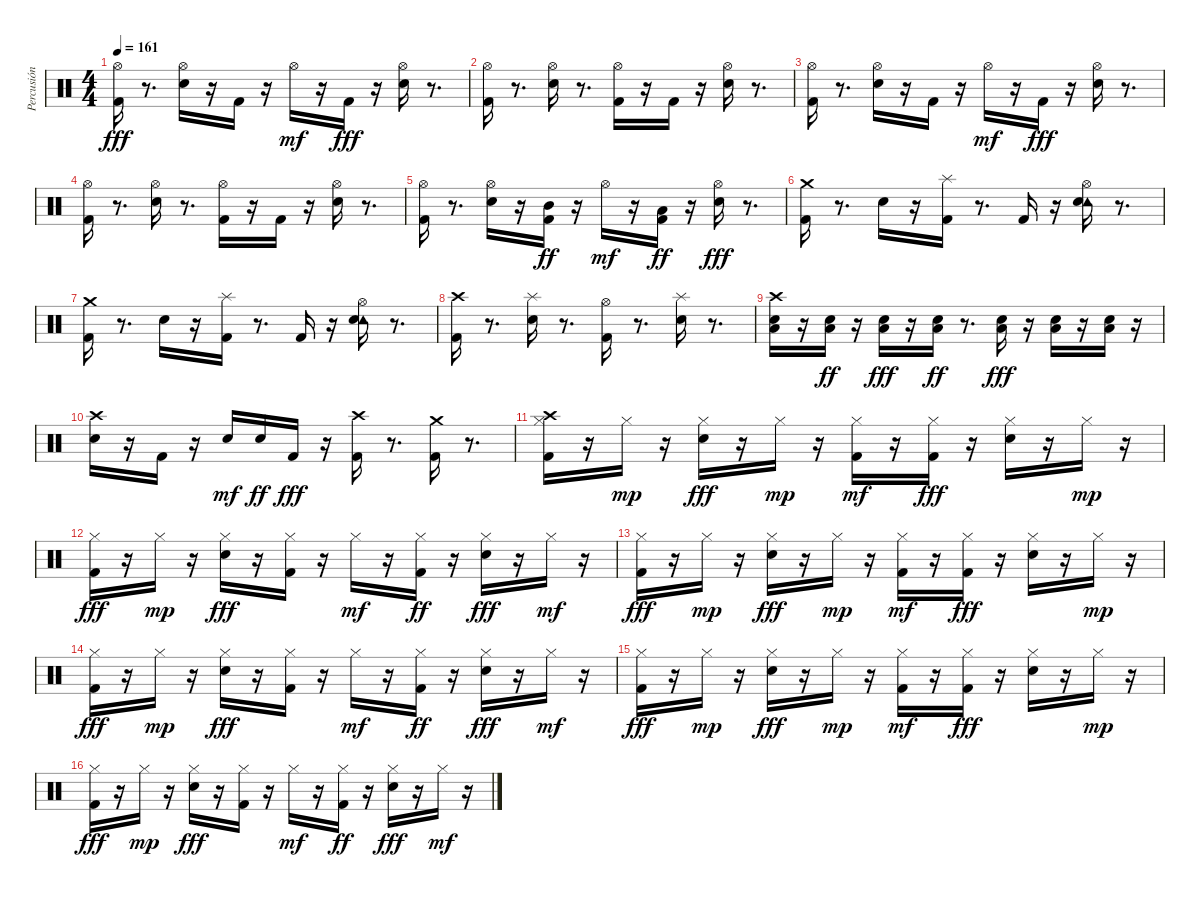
\track ("Percusión" "Percusión") {instrument percussion}
\staff {score}
\articulation defaults
\ts (4 4)
\tempo 161
\clef neutral
\ks c
("Hi-Hat (open)" "Kick (hit) 2").16{dy fff} r.8{d} ("Hi-Hat (open)" "Snare (hit) 2").16 r.16 "Kick (hit) 2".16 r.16 "Hi-Hat (open)".16{dy mf} r.16 "Kick (hit) 2".16{dy fff} r.16 ("Hi-Hat (open)" "Snare (hit) 2").16 r.8{d} |
("Hi-Hat (open)" "Kick (hit) 2").16 r.8{d} ("Hi-Hat (open)" "Snare (hit) 2").16 r.8{d} ("Hi-Hat (open)" "Kick (hit) 2").16 r.16 "Kick (hit) 2".16 r.16 ("Hi-Hat (open)" "Snare (hit) 2").16 r.8{d} |
("Hi-Hat (open)" "Kick (hit) 2").16 r.8{d} ("Hi-Hat (open)" "Snare (hit) 2").16 r.16 "Kick (hit) 2".16 r.16 "Hi-Hat (open)".16{dy mf} r.16 "Kick (hit) 2".16{dy fff} r.16 ("Hi-Hat (open)" "Snare (hit) 2").16 r.8{d} |
("Hi-Hat (open)" "Kick (hit) 2").16 r.8{d} ("Hi-Hat (open)" "Snare (hit) 2").16 r.8{d} ("Hi-Hat (open)" "Kick (hit) 2").16 r.16 "Kick (hit) 2".16 r.16 ("Hi-Hat (open)" "Snare (hit) 2").16 r.8{d} |
("Hi-Hat (open)" "Kick (hit) 2").16 r.8{d} ("Hi-Hat (open)" "Snare (hit) 2").16 r.16 ("Mid Tom (hit)" "Kick (hit) 2").16{dy ff} r.16 "Hi-Hat (open)".16{dy mf} r.16 ("Kick (hit) 2" "Low Tom (hit)").16{dy ff} r.16 ("Hi-Hat (open)" "Snare (hit) 2").16{dy fff} r.8{d} |
("Crash medium (hit)" "Kick (hit) 2").16 r.8{d} "Snare (hit) 2".16 r.16 ("Splash (hit)" "Kick (hit) 2").16 r.8{d} "Kick (hit) 2".16 r.16 ("Hi-Hat (open)" "Tambourine (hit)" "Snare (hit) 2").16 r.8{d} |
("Crash medium (hit)" "Kick (hit) 2").16 r.8{d} "Snare (hit) 2".16 r.16 ("Splash (hit)" "Kick (hit) 2").16 r.8{d} "Kick (hit) 2".16 r.16 ("Hi-Hat (open)" "Tambourine (hit)" "Snare (hit) 2").16 r.8{d} |
("Crash high (hit)" "Kick (hit) 2").16 r.8{d} ("Splash (hit)" "Snare (hit) 2").16 r.8{d} ("Hi-Hat (open)" "Kick (hit) 2").16 r.8{d} ("Splash (hit)" "Snare (hit) 2").16 r.8{d} |
("Crash high (hit)" "Low Floor Tom (hit)" "Snare (hit) 2").16 r.16 ("Low Floor Tom (hit)" "Snare (hit) 2").16{dy ff} r.16 ("Low Floor Tom (hit)" "Snare (hit) 2").16{dy fff} r.16 ("Low Floor Tom (hit)" "Snare (hit) 2").16{dy ff} r.8{d} ("Low Floor Tom (hit)" "Snare (hit) 2").16{dy fff} r.16 ("Low Floor Tom (hit)" "Snare (hit) 2").16 r.16 ("Low Floor Tom (hit)" "Snare (hit) 2").16 r.16 |
("Crash high (hit)" "Snare (hit) 2").16 r.16 "Kick (hit) 2".16 r.16 "Snare (hit) 2".16{dy mf} "Snare (hit) 2".16{dy ff} "Kick (hit) 2".16{dy fff} r.16 ("Crash high (hit)" "Kick (hit) 2").16 r.8{d} ("Crash medium (hit)" "Kick (hit) 2").16 r.8{d} |
("Hi-Hat (closed)" "Crash high (hit)" "Kick (hit) 2").16 r.16 "Hi-Hat (closed)".16{dy mp} r.16 ("Hi-Hat (closed)" "Snare (hit) 2").16{dy fff} r.16 "Hi-Hat (closed)".16{dy mp} r.16 ("Hi-Hat (closed)" "Kick (hit) 2").16{dy mf} r.16 ("Hi-Hat (closed)" "Kick (hit) 2").16{dy fff} r.16 ("Hi-Hat (closed)" "Snare (hit) 2").16 r.16 "Hi-Hat (closed)".16{dy mp} r.16 |
("Hi-Hat (closed)" "Kick (hit) 2").16{dy fff} r.16 "Hi-Hat (closed)".16{dy mp} r.16 ("Hi-Hat (closed)" "Snare (hit) 2").16{dy fff} r.16 ("Hi-Hat (closed)" "Kick (hit) 2").16 r.16 "Hi-Hat (closed)".16{dy mf} r.16 ("Hi-Hat (closed)" "Kick (hit) 2").16{dy ff} r.16 ("Hi-Hat (closed)" "Snare (hit) 2").16{dy fff} r.16 "Hi-Hat (closed)".16{dy mf} r.16 |
("Hi-Hat (closed)" "Kick (hit) 2").16{dy fff} r.16 "Hi-Hat (closed)".16{dy mp} r.16 ("Hi-Hat (closed)" "Snare (hit) 2").16{dy fff} r.16 "Hi-Hat (closed)".16{dy mp} r.16 ("Hi-Hat (closed)" "Kick (hit) 2").16{dy mf} r.16 ("Hi-Hat (closed)" "Kick (hit) 2").16{dy fff} r.16 ("Hi-Hat (closed)" "Snare (hit) 2").16 r.16 "Hi-Hat (closed)".16{dy mp} r.16 |
("Hi-Hat (closed)" "Kick (hit) 2").16{dy fff} r.16 "Hi-Hat (closed)".16{dy mp} r.16 ("Hi-Hat (closed)" "Snare (hit) 2").16{dy fff} r.16 ("Hi-Hat (closed)" "Kick (hit) 2").16 r.16 "Hi-Hat (closed)".16{dy mf} r.16 ("Hi-Hat (closed)" "Kick (hit) 2").16{dy ff} r.16 ("Hi-Hat (closed)" "Snare (hit) 2").16{dy fff} r.16 "Hi-Hat (closed)".16{dy mf} r.16 |
("Hi-Hat (closed)" "Kick (hit) 2").16{dy fff} r.16 "Hi-Hat (closed)".16{dy mp} r.16 ("Hi-Hat (closed)" "Snare (hit) 2").16{dy fff} r.16 "Hi-Hat (closed)".16{dy mp} r.16 ("Hi-Hat (closed)" "Kick (hit) 2").16{dy mf} r.16 ("Hi-Hat (closed)" "Kick (hit) 2").16{dy fff} r.16 ("Hi-Hat (closed)" "Snare (hit) 2").16 r.16 "Hi-Hat (closed)".16{dy mp} r.16 |
("Hi-Hat (closed)" "Kick (hit) 2").16{dy fff} r.16 "Hi-Hat (closed)".16{dy mp} r.16 ("Hi-Hat (closed)" "Snare (hit) 2").16{dy fff} r.16 ("Hi-Hat (closed)" "Kick (hit) 2").16 r.16 "Hi-Hat (closed)".16{dy mf} r.16 ("Hi-Hat (closed)" "Kick (hit) 2").16{dy ff} r.16 ("Hi-Hat (closed)" "Snare (hit) 2").16{dy fff} r.16 "Hi-Hat (closed)".16{dy mf} r.16
